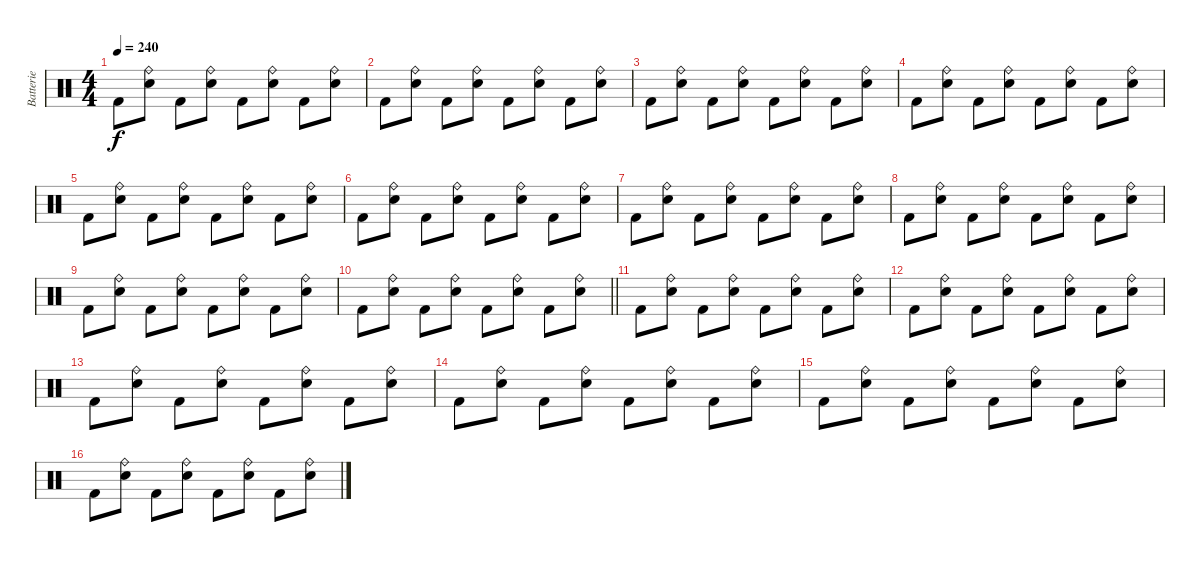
\track ("Batterie" "Batterie") {instrument percussion}
\staff {score}
\articulation defaults
\ts (4 4)
\tempo 240
\clef neutral
\ks c "Kick (hit) 2".8{dy f}
("Ride (bell)" "Snare (hit) 2").8 "Kick (hit) 2".8 ("Ride (bell)" "Snare (hit) 2").8 "Kick (hit) 2".8 ("Ride (bell)" "Snare (hit) 2").8 "Kick (hit) 2".8 ("Ride (bell)" "Snare (hit) 2").8 |
"Kick (hit) 2".8 ("Ride (bell)" "Snare (hit) 2").8 "Kick (hit) 2".8 ("Ride (bell)" "Snare (hit) 2").8 "Kick (hit) 2".8 ("Ride (bell)" "Snare (hit) 2").8 "Kick (hit) 2".8 ("Ride (bell)" "Snare (hit) 2").8 |
"Kick (hit) 2".8 ("Ride (bell)" "Snare (hit) 2").8 "Kick (hit) 2".8 ("Ride (bell)" "Snare (hit) 2").8 "Kick (hit) 2".8 ("Ride (bell)" "Snare (hit) 2").8 "Kick (hit) 2".8 ("Ride (bell)" "Snare (hit) 2").8 |
"Kick (hit) 2".8 ("Ride (bell)" "Snare (hit) 2").8 "Kick (hit) 2".8 ("Ride (bell)" "Snare (hit) 2").8 "Kick (hit) 2".8 ("Ride (bell)" "Snare (hit) 2").8 "Kick (hit) 2".8 ("Ride (bell)" "Snare (hit) 2").8 |
"Kick (hit) 2".8 ("Ride (bell)" "Snare (hit) 2").8 "Kick (hit) 2".8 ("Ride (bell)" "Snare (hit) 2").8 "Kick (hit) 2".8 ("Ride (bell)" "Snare (hit) 2").8 "Kick (hit) 2".8 ("Ride (bell)" "Snare (hit) 2").8 |
"Kick (hit) 2".8 ("Ride (bell)" "Snare (hit) 2").8 "Kick (hit) 2".8 ("Ride (bell)" "Snare (hit) 2").8 "Kick (hit) 2".8 ("Ride (bell)" "Snare (hit) 2").8 "Kick (hit) 2".8 ("Ride (bell)" "Snare (hit) 2").8 |
"Kick (hit) 2".8 ("Ride (bell)" "Snare (hit) 2").8 "Kick (hit) 2".8 ("Ride (bell)" "Snare (hit) 2").8 "Kick (hit) 2".8 ("Ride (bell)" "Snare (hit) 2").8 "Kick (hit) 2".8 ("Ride (bell)" "Snare (hit) 2").8 |
"Kick (hit) 2".8 ("Ride (bell)" "Snare (hit) 2").8 "Kick (hit) 2".8 ("Ride (bell)" "Snare (hit) 2").8 "Kick (hit) 2".8 ("Ride (bell)" "Snare (hit) 2").8 "Kick (hit) 2".8 ("Ride (bell)" "Snare (hit) 2").8 |
"Kick (hit) 2".8 ("Ride (bell)" "Snare (hit) 2").8 "Kick (hit) 2".8 ("Ride (bell)" "Snare (hit) 2").8 "Kick (hit) 2".8 ("Ride (bell)" "Snare (hit) 2").8 "Kick (hit) 2".8 ("Ride (bell)" "Snare (hit) 2").8 |
\barLineRight lightlight "Kick (hit) 2".8
("Ride (bell)" "Snare (hit) 2").8 "Kick (hit) 2".8 ("Ride (bell)" "Snare (hit) 2").8 "Kick (hit) 2".8 ("Ride (bell)" "Snare (hit) 2").8 "Kick (hit) 2".8 ("Ride (bell)" "Snare (hit) 2").8 |
"Kick (hit) 2".8 ("Ride (bell)" "Snare (hit) 2").8 "Kick (hit) 2".8 ("Ride (bell)" "Snare (hit) 2").8 "Kick (hit) 2".8 ("Ride (bell)" "Snare (hit) 2").8 "Kick (hit) 2".8 ("Ride (bell)" "Snare (hit) 2").8 |
"Kick (hit) 2".8 ("Ride (bell)" "Snare (hit) 2").8 "Kick (hit) 2".8 ("Ride (bell)" "Snare (hit) 2").8 "Kick (hit) 2".8 ("Ride (bell)" "Snare (hit) 2").8 "Kick (hit) 2".8 ("Ride (bell)" "Snare (hit) 2").8 |
"Kick (hit) 2".8 ("Ride (bell)" "Snare (hit) 2").8 "Kick (hit) 2".8 ("Ride (bell)" "Snare (hit) 2").8 "Kick (hit) 2".8 ("Ride (bell)" "Snare (hit) 2").8 "Kick (hit) 2".8 ("Ride (bell)" "Snare (hit) 2").8 |
"Kick (hit) 2".8 ("Ride (bell)" "Snare (hit) 2").8 "Kick (hit) 2".8 ("Ride (bell)" "Snare (hit) 2").8 "Kick (hit) 2".8 ("Ride (bell)" "Snare (hit) 2").8 "Kick (hit) 2".8 ("Ride (bell)" "Snare (hit) 2").8 |
"Kick (hit) 2".8 ("Ride (bell)" "Snare (hit) 2").8 "Kick (hit) 2".8 ("Ride (bell)" "Snare (hit) 2").8 "Kick (hit) 2".8 ("Ride (bell)" "Snare (hit) 2").8 "Kick (hit) 2".8 ("Ride (bell)" "Snare (hit) 2").8 |
"Kick (hit) 2".8 ("Ride (bell)" "Snare (hit) 2").8 "Kick (hit) 2".8 ("Ride (bell)" "Snare (hit) 2").8 "Kick (hit) 2".8 ("Ride (bell)" "Snare (hit) 2").8 "Kick (hit) 2".8 ("Ride (bell)" "Snare (hit) 2").8
